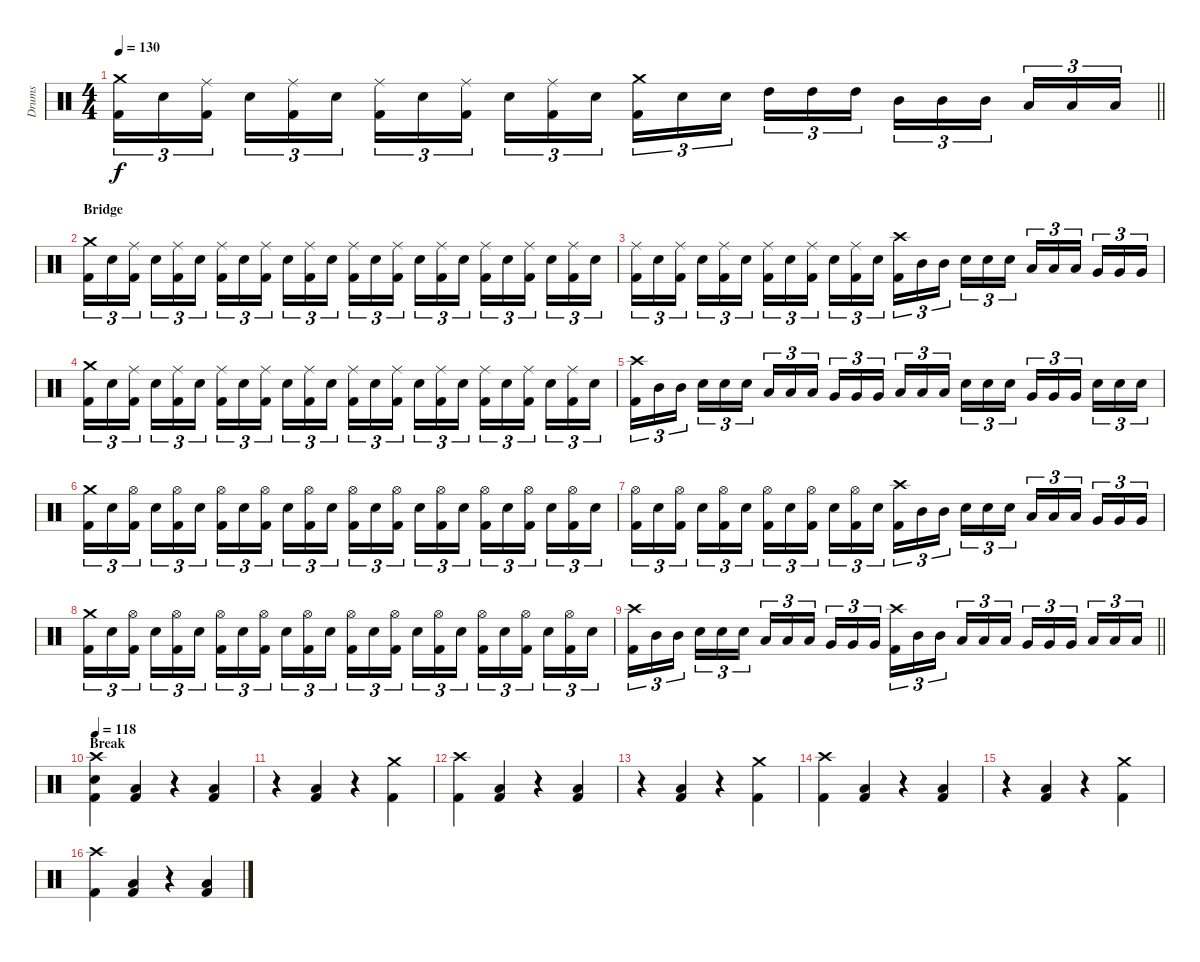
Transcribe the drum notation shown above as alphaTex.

\track ("Drums" "Drums") {instrument percussion}
\staff {score}
\articulation defaults
\ts (4 4)
\tempo 130
\clef neutral
\barLineRight lightlight
\ks c
("Crash medium (hit)" "Kick (hit) 2").16{tu (3 2) dy f} "Electric Snare (hit)".16{tu (3 2)} ("Ride (middle)" "Kick (hit) 2").16{tu (3 2) beam splitsecondary} "Electric Snare (hit)".16{tu (3 2)} ("Ride (middle)" "Kick (hit) 2").16{tu (3 2)} "Electric Snare (hit)".16{tu (3 2)} ("Ride (middle)" "Kick (hit) 2").16{tu (3 2)} "Electric Snare (hit)".16{tu (3 2)} ("Ride (middle)" "Kick (hit) 2").16{tu (3 2) beam splitsecondary} "Electric Snare (hit)".16{tu (3 2)} ("Ride (middle)" "Kick (hit) 2").16{tu (3 2)} "Electric Snare (hit)".16{tu (3 2)} ("Crash medium (hit)" "Kick (hit) 2").16{tu (3 2)} "Electric Snare (hit)".16{tu (3 2)} "Electric Snare (hit)".16{tu (3 2) beam splitsecondary} "High Tom (hit)".16{tu (3 2)} "High Tom (hit)".16{tu (3 2)} "High Tom (hit)".16{tu (3 2)} "Mid Tom (hit)".16{tu (3 2)} "Mid Tom (hit)".16{tu (3 2)} "Mid Tom (hit)".16{tu (3 2) beam splitsecondary} "Low Tom (hit)".16{tu (3 2)} "Low Tom (hit)".16{tu (3 2)} "Low Tom (hit)".16{tu (3 2)} |
\section ("" "Bridge")
("Crash medium (hit)" "Kick (hit) 2").16{tu (3 2)} "Electric Snare (hit)".16{tu (3 2)} ("Ride (middle)" "Kick (hit) 2").16{tu (3 2) beam splitsecondary} "Electric Snare (hit)".16{tu (3 2)} ("Ride (middle)" "Kick (hit) 2").16{tu (3 2)} "Electric Snare (hit)".16{tu (3 2)} ("Ride (middle)" "Kick (hit) 2").16{tu (3 2)} "Electric Snare (hit)".16{tu (3 2)} ("Ride (middle)" "Kick (hit) 2").16{tu (3 2) beam splitsecondary} "Electric Snare (hit)".16{tu (3 2)} ("Ride (middle)" "Kick (hit) 2").16{tu (3 2)} "Electric Snare (hit)".16{tu (3 2)} ("Ride (middle)" "Kick (hit) 2").16{tu (3 2)} "Electric Snare (hit)".16{tu (3 2)} ("Ride (middle)" "Kick (hit) 2").16{tu (3 2) beam splitsecondary} "Electric Snare (hit)".16{tu (3 2)} ("Ride (middle)" "Kick (hit) 2").16{tu (3 2)} "Electric Snare (hit)".16{tu (3 2)} ("Ride (middle)" "Kick (hit) 2").16{tu (3 2)} "Electric Snare (hit)".16{tu (3 2)} ("Ride (middle)" "Kick (hit) 2").16{tu (3 2) beam splitsecondary} "Electric Snare (hit)".16{tu (3 2)} ("Ride (middle)" "Kick (hit) 2").16{tu (3 2)} "Electric Snare (hit)".16{tu (3 2)} |
("Ride (middle)" "Kick (hit) 2").16{tu (3 2)} "Electric Snare (hit)".16{tu (3 2)} ("Ride (middle)" "Kick (hit) 2").16{tu (3 2) beam splitsecondary} "Electric Snare (hit)".16{tu (3 2)} ("Ride (middle)" "Kick (hit) 2").16{tu (3 2)} "Electric Snare (hit)".16{tu (3 2)} ("Ride (middle)" "Kick (hit) 2").16{tu (3 2)} "Electric Snare (hit)".16{tu (3 2)} ("Ride (middle)" "Kick (hit) 2").16{tu (3 2) beam splitsecondary} "Electric Snare (hit)".16{tu (3 2)} ("Ride (middle)" "Kick (hit) 2").16{tu (3 2)} "Electric Snare (hit)".16{tu (3 2)} ("Crash high (hit)" "Kick (hit) 2").16{tu (3 2)} "Mid Tom (hit)".16{tu (3 2)} "Mid Tom (hit)".16{tu (3 2) beam splitsecondary} "Electric Snare (hit)".16{tu (3 2)} "Electric Snare (hit)".16{tu (3 2)} "Electric Snare (hit)".16{tu (3 2)} "Low Tom (hit)".16{tu (3 2)} "Low Tom (hit)".16{tu (3 2)} "Low Tom (hit)".16{tu (3 2) beam splitsecondary} "Very Low Tom (hit)".16{tu (3 2)} "Very Low Tom (hit)".16{tu (3 2)} "Very Low Tom (hit)".16{tu (3 2)} |
("Crash medium (hit)" "Kick (hit) 2").16{tu (3 2)} "Electric Snare (hit)".16{tu (3 2)} ("Ride (middle)" "Kick (hit) 2").16{tu (3 2) beam splitsecondary} "Electric Snare (hit)".16{tu (3 2)} ("Ride (middle)" "Kick (hit) 2").16{tu (3 2)} "Electric Snare (hit)".16{tu (3 2)} ("Ride (middle)" "Kick (hit) 2").16{tu (3 2)} "Electric Snare (hit)".16{tu (3 2)} ("Ride (middle)" "Kick (hit) 2").16{tu (3 2) beam splitsecondary} "Electric Snare (hit)".16{tu (3 2)} ("Ride (middle)" "Kick (hit) 2").16{tu (3 2)} "Electric Snare (hit)".16{tu (3 2)} ("Ride (middle)" "Kick (hit) 2").16{tu (3 2)} "Electric Snare (hit)".16{tu (3 2)} ("Ride (middle)" "Kick (hit) 2").16{tu (3 2) beam splitsecondary} "Electric Snare (hit)".16{tu (3 2)} ("Ride (middle)" "Kick (hit) 2").16{tu (3 2)} "Electric Snare (hit)".16{tu (3 2)} ("Ride (middle)" "Kick (hit) 2").16{tu (3 2)} "Electric Snare (hit)".16{tu (3 2)} ("Ride (middle)" "Kick (hit) 2").16{tu (3 2) beam splitsecondary} "Electric Snare (hit)".16{tu (3 2)} ("Ride (middle)" "Kick (hit) 2").16{tu (3 2)} "Electric Snare (hit)".16{tu (3 2)} |
("Crash high (hit)" "Kick (hit) 2").16{tu (3 2)} "Mid Tom (hit)".16{tu (3 2)} "Mid Tom (hit)".16{tu (3 2) beam splitsecondary} "Electric Snare (hit)".16{tu (3 2)} "Electric Snare (hit)".16{tu (3 2)} "Electric Snare (hit)".16{tu (3 2)} "Low Tom (hit)".16{tu (3 2)} "Low Tom (hit)".16{tu (3 2)} "Low Tom (hit)".16{tu (3 2) beam splitsecondary} "Very Low Tom (hit)".16{tu (3 2)} "Very Low Tom (hit)".16{tu (3 2)} "Very Low Tom (hit)".16{tu (3 2)} "Low Floor Tom (hit)".16{tu (3 2)} "Low Floor Tom (hit)".16{tu (3 2)} "Low Floor Tom (hit)".16{tu (3 2) beam splitsecondary} "Electric Snare (hit)".16{tu (3 2)} "Electric Snare (hit)".16{tu (3 2)} "Electric Snare (hit)".16{tu (3 2)} "Very Low Tom (hit)".16{tu (3 2)} "Very Low Tom (hit)".16{tu (3 2)} "Very Low Tom (hit)".16{tu (3 2) beam splitsecondary} "Electric Snare (hit)".16{tu (3 2)} "Electric Snare (hit)".16{tu (3 2)} "Electric Snare (hit)".16{tu (3 2)} |
("Crash medium (hit)" "Kick (hit) 2").16{tu (3 2)} "Electric Snare (hit)".16{tu (3 2)} ("Hi-Hat (open)" "Kick (hit) 2").16{tu (3 2) beam splitsecondary} "Electric Snare (hit)".16{tu (3 2)} ("Hi-Hat (open)" "Kick (hit) 2").16{tu (3 2)} "Electric Snare (hit)".16{tu (3 2)} ("Hi-Hat (open)" "Kick (hit) 2").16{tu (3 2)} "Electric Snare (hit)".16{tu (3 2)} ("Hi-Hat (open)" "Kick (hit) 2").16{tu (3 2) beam splitsecondary} "Electric Snare (hit)".16{tu (3 2)} ("Hi-Hat (open)" "Kick (hit) 2").16{tu (3 2)} "Electric Snare (hit)".16{tu (3 2)} ("Hi-Hat (open)" "Kick (hit) 2").16{tu (3 2)} "Electric Snare (hit)".16{tu (3 2)} ("Hi-Hat (open)" "Kick (hit) 2").16{tu (3 2) beam splitsecondary} "Electric Snare (hit)".16{tu (3 2)} ("Hi-Hat (open)" "Kick (hit) 2").16{tu (3 2)} "Electric Snare (hit)".16{tu (3 2)} ("Hi-Hat (open)" "Kick (hit) 2").16{tu (3 2)} "Electric Snare (hit)".16{tu (3 2)} ("Hi-Hat (open)" "Kick (hit) 2").16{tu (3 2) beam splitsecondary} "Electric Snare (hit)".16{tu (3 2)} ("Hi-Hat (open)" "Kick (hit) 2").16{tu (3 2)} "Electric Snare (hit)".16{tu (3 2)} |
("Hi-Hat (open)" "Kick (hit) 2").16{tu (3 2)} "Electric Snare (hit)".16{tu (3 2)} ("Hi-Hat (open)" "Kick (hit) 2").16{tu (3 2) beam splitsecondary} "Electric Snare (hit)".16{tu (3 2)} ("Hi-Hat (open)" "Kick (hit) 2").16{tu (3 2)} "Electric Snare (hit)".16{tu (3 2)} ("Hi-Hat (open)" "Kick (hit) 2").16{tu (3 2)} "Electric Snare (hit)".16{tu (3 2)} ("Hi-Hat (open)" "Kick (hit) 2").16{tu (3 2) beam splitsecondary} "Electric Snare (hit)".16{tu (3 2)} ("Hi-Hat (open)" "Kick (hit) 2").16{tu (3 2)} "Electric Snare (hit)".16{tu (3 2)} ("Crash high (hit)" "Kick (hit) 2").16{tu (3 2)} "Mid Tom (hit)".16{tu (3 2)} "Mid Tom (hit)".16{tu (3 2) beam splitsecondary} "Electric Snare (hit)".16{tu (3 2)} "Electric Snare (hit)".16{tu (3 2)} "Electric Snare (hit)".16{tu (3 2)} "Low Tom (hit)".16{tu (3 2)} "Low Tom (hit)".16{tu (3 2)} "Low Tom (hit)".16{tu (3 2) beam splitsecondary} "Very Low Tom (hit)".16{tu (3 2)} "Very Low Tom (hit)".16{tu (3 2)} "Very Low Tom (hit)".16{tu (3 2)} |
("Crash medium (hit)" "Kick (hit) 2").16{tu (3 2)} "Electric Snare (hit)".16{tu (3 2)} ("Hi-Hat (open)" "Kick (hit) 2").16{tu (3 2) beam splitsecondary} "Electric Snare (hit)".16{tu (3 2)} ("Hi-Hat (open)" "Kick (hit) 2").16{tu (3 2)} "Electric Snare (hit)".16{tu (3 2)} ("Hi-Hat (open)" "Kick (hit) 2").16{tu (3 2)} "Electric Snare (hit)".16{tu (3 2)} ("Hi-Hat (open)" "Kick (hit) 2").16{tu (3 2) beam splitsecondary} "Electric Snare (hit)".16{tu (3 2)} ("Hi-Hat (open)" "Kick (hit) 2").16{tu (3 2)} "Electric Snare (hit)".16{tu (3 2)} ("Hi-Hat (open)" "Kick (hit) 2").16{tu (3 2)} "Electric Snare (hit)".16{tu (3 2)} ("Hi-Hat (open)" "Kick (hit) 2").16{tu (3 2) beam splitsecondary} "Electric Snare (hit)".16{tu (3 2)} ("Hi-Hat (open)" "Kick (hit) 2").16{tu (3 2)} "Electric Snare (hit)".16{tu (3 2)} ("Hi-Hat (open)" "Kick (hit) 2").16{tu (3 2)} "Electric Snare (hit)".16{tu (3 2)} ("Hi-Hat (open)" "Kick (hit) 2").16{tu (3 2) beam splitsecondary} "Electric Snare (hit)".16{tu (3 2)} ("Hi-Hat (open)" "Kick (hit) 2").16{tu (3 2)} "Electric Snare (hit)".16{tu (3 2)} |
\barLineRight lightlight
("Crash high (hit)" "Kick (hit) 2").16{tu (3 2)} "Mid Tom (hit)".16{tu (3 2)} "Mid Tom (hit)".16{tu (3 2) beam splitsecondary} "Electric Snare (hit)".16{tu (3 2)} "Electric Snare (hit)".16{tu (3 2)} "Electric Snare (hit)".16{tu (3 2)} "Low Tom (hit)".16{tu (3 2)} "Low Tom (hit)".16{tu (3 2)} "Low Tom (hit)".16{tu (3 2) beam splitsecondary} "Very Low Tom (hit)".16{tu (3 2)} "Very Low Tom (hit)".16{tu (3 2)} "Very Low Tom (hit)".16{tu (3 2)} ("Crash high (hit)" "Kick (hit) 2").16{tu (3 2)} "Mid Tom (hit)".16{tu (3 2)} "Mid Tom (hit)".16{tu (3 2) beam splitsecondary} "Low Tom (hit)".16{tu (3 2)} "Low Tom (hit)".16{tu (3 2)} "Low Tom (hit)".16{tu (3 2)} "Very Low Tom (hit)".16{tu (3 2)} "Very Low Tom (hit)".16{tu (3 2)} "Very Low Tom (hit)".16{tu (3 2) beam splitsecondary} "Low Floor Tom (hit)".16{tu (3 2)} "Low Floor Tom (hit)".16{tu (3 2)} "Low Floor Tom (hit)".16{tu (3 2)} |
\section ("" "Break")
\tempo 118
("Crash high (hit)" "Electric Snare (hit)" "Kick (hit) 2").4 ("Low Floor Tom (hit)" "Kick (hit) 2").4 r.4 ("Low Floor Tom (hit)" "Kick (hit) 2").4 |
r.4 ("Low Floor Tom (hit)" "Kick (hit) 2").4 r.4 ("Crash medium (hit)" "Kick (hit) 2").4 |
("Crash high (hit)" "Kick (hit) 2").4 ("Low Floor Tom (hit)" "Kick (hit) 2").4 r.4 ("Low Floor Tom (hit)" "Kick (hit) 2").4 |
r.4 ("Low Floor Tom (hit)" "Kick (hit) 2").4 r.4 ("Crash medium (hit)" "Kick (hit) 2").4 |
("Crash high (hit)" "Kick (hit) 2").4 ("Low Floor Tom (hit)" "Kick (hit) 2").4 r.4 ("Low Floor Tom (hit)" "Kick (hit) 2").4 |
r.4 ("Low Floor Tom (hit)" "Kick (hit) 2").4 r.4 ("Crash medium (hit)" "Kick (hit) 2").4 |
("Crash high (hit)" "Kick (hit) 2").4 ("Low Floor Tom (hit)" "Kick (hit) 2").4 r.4 ("Low Floor Tom (hit)" "Kick (hit) 2").4
